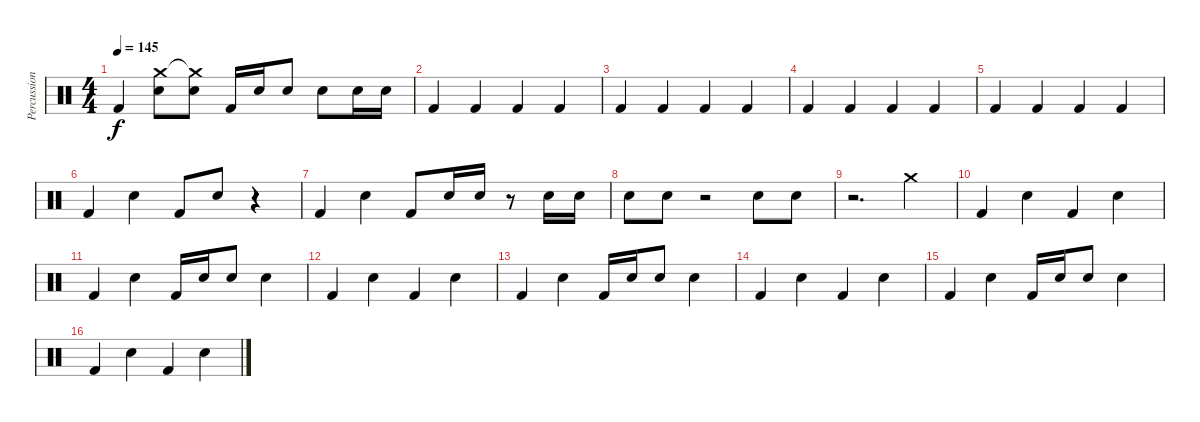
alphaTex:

\track ("Percussion" "Percussion") {instrument percussion}
\staff {score}
\articulation defaults
\ts (4 4)
\tempo 145
\clef neutral
\ks c "Kick (hit) 2".4{dy f}
("Crash medium (hit)" "Electric Snare (hit)").8 ("Crash medium (hit)"{t} "Electric Snare (hit)").8 "Kick (hit) 2".16 "Electric Snare (hit)".16 "Electric Snare (hit)".8 "Electric Snare (hit)".8 "Electric Snare (hit)".16 "Electric Snare (hit)".16 |
"Kick (hit) 2".4 "Kick (hit) 2".4 "Kick (hit) 2".4 "Kick (hit) 2".4 |
"Kick (hit) 2".4 "Kick (hit) 2".4 "Kick (hit) 2".4 "Kick (hit) 2".4 |
"Kick (hit) 2".4 "Kick (hit) 2".4 "Kick (hit) 2".4 "Kick (hit) 2".4 |
"Kick (hit) 2".4 "Kick (hit) 2".4 "Kick (hit) 2".4 "Kick (hit) 2".4 |
"Kick (hit) 2".4 "Electric Snare (hit)".4 "Kick (hit) 2".8 "Electric Snare (hit)".8 r.4 |
"Kick (hit) 2".4 "Electric Snare (hit)".4 "Kick (hit) 2".8 "Electric Snare (hit)".16 "Electric Snare (hit)".16 r.8 "Electric Snare (hit)".16 "Electric Snare (hit)".16 |
"Electric Snare (hit)".8 "Electric Snare (hit)".8 r.2 "Electric Snare (hit)".8 "Electric Snare (hit)".8 |
r.2{d} "Crash medium (hit)".4 |
"Kick (hit) 2".4 "Electric Snare (hit)".4 "Kick (hit) 2".4 "Electric Snare (hit)".4 |
"Kick (hit) 2".4 "Electric Snare (hit)".4 "Kick (hit) 2".16 "Electric Snare (hit)".16 "Electric Snare (hit)".8 "Electric Snare (hit)".4 |
"Kick (hit) 2".4 "Electric Snare (hit)".4 "Kick (hit) 2".4 "Electric Snare (hit)".4 |
"Kick (hit) 2".4 "Electric Snare (hit)".4 "Kick (hit) 2".16 "Electric Snare (hit)".16 "Electric Snare (hit)".8 "Electric Snare (hit)".4 |
"Kick (hit) 2".4 "Electric Snare (hit)".4 "Kick (hit) 2".4 "Electric Snare (hit)".4 |
"Kick (hit) 2".4 "Electric Snare (hit)".4 "Kick (hit) 2".16 "Electric Snare (hit)".16 "Electric Snare (hit)".8 "Electric Snare (hit)".4 |
"Kick (hit) 2".4 "Electric Snare (hit)".4 "Kick (hit) 2".4 "Electric Snare (hit)".4
